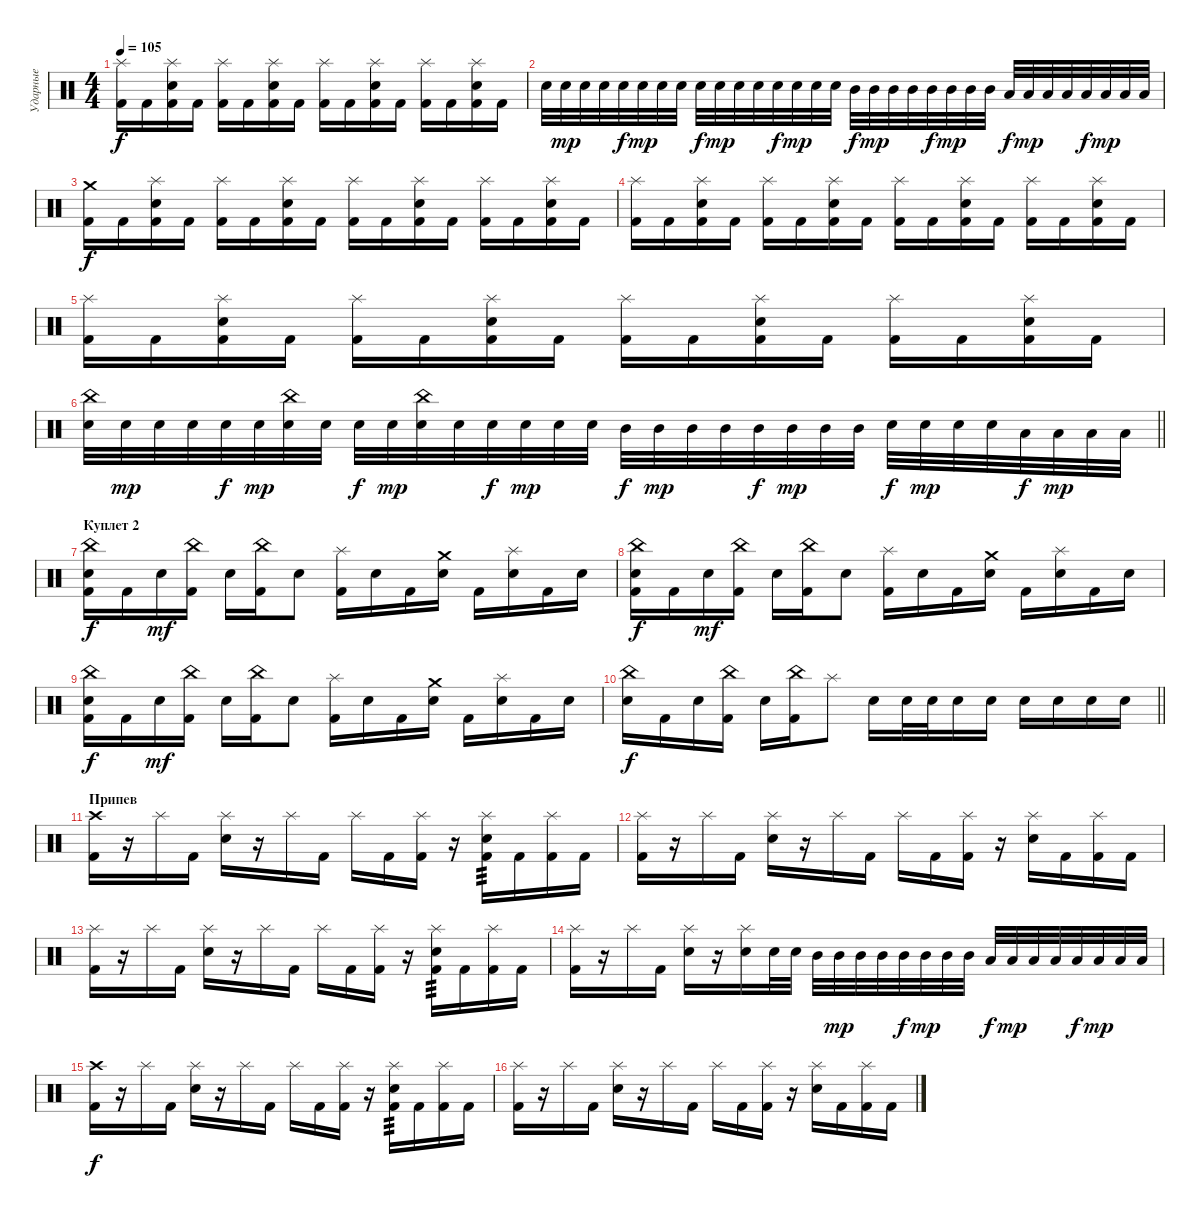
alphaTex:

\track ("Ударные" "Ударные") {instrument percussion}
\staff {score}
\articulation defaults
\ts (4 4)
\tempo 105
\clef neutral
\ks c
("Splash (hit)" "Kick (hit) 2").16{dy f} "Kick (hit) 2".16 ("Splash (hit)" "Electric Snare (hit)" "Kick (hit) 2").16 "Kick (hit) 2".16 ("Splash (hit)" "Kick (hit) 2").16 "Kick (hit) 2".16 ("Splash (hit)" "Electric Snare (hit)" "Kick (hit) 2").16 "Kick (hit) 2".16 ("Splash (hit)" "Kick (hit) 2").16 "Kick (hit) 2".16 ("Splash (hit)" "Electric Snare (hit)" "Kick (hit) 2").16 "Kick (hit) 2".16 ("Splash (hit)" "Kick (hit) 2").16 "Kick (hit) 2".16 ("Splash (hit)" "Electric Snare (hit)" "Kick (hit) 2").16 "Kick (hit) 2".16 |
"Electric Snare (hit)".32 "Electric Snare (hit)".32{dy mp} "Electric Snare (hit)".32 "Electric Snare (hit)".32 "Electric Snare (hit)".32{dy f} "Electric Snare (hit)".32{dy mp} "Electric Snare (hit)".32 "Electric Snare (hit)".32 "Electric Snare (hit)".32{dy f} "Electric Snare (hit)".32{dy mp} "Electric Snare (hit)".32 "Electric Snare (hit)".32 "Electric Snare (hit)".32{dy f} "Electric Snare (hit)".32{dy mp} "Electric Snare (hit)".32 "Electric Snare (hit)".32 "Mid Tom (hit)".32{dy f} "Mid Tom (hit)".32{dy mp} "Mid Tom (hit)".32 "Mid Tom (hit)".32 "Mid Tom (hit)".32{dy f} "Mid Tom (hit)".32{dy mp} "Mid Tom (hit)".32 "Mid Tom (hit)".32 "Low Tom (hit)".32{dy f} "Low Tom (hit)".32{dy mp} "Low Tom (hit)".32 "Low Tom (hit)".32 "Low Tom (hit)".32{dy f} "Low Tom (hit)".32{dy mp} "Low Tom (hit)".32 "Low Tom (hit)".32 |
("Crash medium (hit)" "Kick (hit) 2").16{dy f} "Kick (hit) 2".16 ("Splash (hit)" "Electric Snare (hit)" "Kick (hit) 2").16 "Kick (hit) 2".16 ("Splash (hit)" "Kick (hit) 2").16 "Kick (hit) 2".16 ("Splash (hit)" "Electric Snare (hit)" "Kick (hit) 2").16 "Kick (hit) 2".16 ("Splash (hit)" "Kick (hit) 2").16 "Kick (hit) 2".16 ("Splash (hit)" "Electric Snare (hit)" "Kick (hit) 2").16 "Kick (hit) 2".16 ("Splash (hit)" "Kick (hit) 2").16 "Kick (hit) 2".16 ("Splash (hit)" "Electric Snare (hit)" "Kick (hit) 2").16 "Kick (hit) 2".16 |
("Splash (hit)" "Kick (hit) 2").16 "Kick (hit) 2".16 ("Splash (hit)" "Electric Snare (hit)" "Kick (hit) 2").16 "Kick (hit) 2".16 ("Splash (hit)" "Kick (hit) 2").16 "Kick (hit) 2".16 ("Splash (hit)" "Electric Snare (hit)" "Kick (hit) 2").16 "Kick (hit) 2".16 ("Splash (hit)" "Kick (hit) 2").16 "Kick (hit) 2".16 ("Splash (hit)" "Electric Snare (hit)" "Kick (hit) 2").16 "Kick (hit) 2".16 ("Splash (hit)" "Kick (hit) 2").16 "Kick (hit) 2".16 ("Splash (hit)" "Electric Snare (hit)" "Kick (hit) 2").16 "Kick (hit) 2".16 |
("Splash (hit)" "Kick (hit) 2").16 "Kick (hit) 2".16 ("Splash (hit)" "Electric Snare (hit)" "Kick (hit) 2").16 "Kick (hit) 2".16 ("Splash (hit)" "Kick (hit) 2").16 "Kick (hit) 2".16 ("Splash (hit)" "Electric Snare (hit)" "Kick (hit) 2").16 "Kick (hit) 2".16 ("Splash (hit)" "Kick (hit) 2").16 "Kick (hit) 2".16 ("Splash (hit)" "Electric Snare (hit)" "Kick (hit) 2").16 "Kick (hit) 2".16 ("Splash (hit)" "Kick (hit) 2").16 "Kick (hit) 2".16 ("Splash (hit)" "Electric Snare (hit)" "Kick (hit) 2").16 "Kick (hit) 2".16 |
\barLineRight lightlight
("China (hit)" "Electric Snare (hit)").32 "Electric Snare (hit)".32{dy mp} "Electric Snare (hit)".32 "Electric Snare (hit)".32 "Electric Snare (hit)".32{dy f} "Electric Snare (hit)".32{dy mp} ("China (hit)" "Electric Snare (hit)").32 "Electric Snare (hit)".32 "Electric Snare (hit)".32{dy f} "Electric Snare (hit)".32{dy mp} ("China (hit)" "Electric Snare (hit)").32 "Electric Snare (hit)".32 "Electric Snare (hit)".32{dy f} "Electric Snare (hit)".32{dy mp} "Electric Snare (hit)".32 "Electric Snare (hit)".32 "Mid Tom (hit)".32{dy f} "Mid Tom (hit)".32{dy mp} "Mid Tom (hit)".32 "Mid Tom (hit)".32 "Mid Tom (hit)".32{dy f} "Mid Tom (hit)".32{dy mp} "Mid Tom (hit)".32 "Mid Tom (hit)".32 "Electric Snare (hit)".32{dy f} "Electric Snare (hit)".32{dy mp} "Electric Snare (hit)".32 "Electric Snare (hit)".32 "Low Tom (hit)".32{dy f} "Low Tom (hit)".32{dy mp} "Low Tom (hit)".32 "Low Tom (hit)".32 |
\section ("" "Куплет 2")
("China (hit)" "Electric Snare (hit)" "Kick (hit) 2").16{dy f} "Kick (hit) 2".16 "Electric Snare (hit)".16{dy mf} ("China (hit)" "Kick (hit) 2").16 "Electric Snare (hit)".16 ("China (hit)" "Kick (hit) 2").16 "Electric Snare (hit)".8 ("Splash (hit)" "Kick (hit) 2").16 "Electric Snare (hit)".16 "Kick (hit) 2".16 ("Crash medium (hit)" "Electric Snare (hit)").16 "Kick (hit) 2".16 ("Splash (hit)" "Electric Snare (hit)").16 "Kick (hit) 2".16 "Electric Snare (hit)".16 |
("China (hit)" "Electric Snare (hit)" "Kick (hit) 2").16{dy f} "Kick (hit) 2".16 "Electric Snare (hit)".16{dy mf} ("China (hit)" "Kick (hit) 2").16 "Electric Snare (hit)".16 ("China (hit)" "Kick (hit) 2").16 "Electric Snare (hit)".8 ("Splash (hit)" "Kick (hit) 2").16 "Electric Snare (hit)".16 "Kick (hit) 2".16 ("Crash medium (hit)" "Electric Snare (hit)").16 "Kick (hit) 2".16 ("Splash (hit)" "Electric Snare (hit)").16 "Kick (hit) 2".16 "Electric Snare (hit)".16 |
("China (hit)" "Electric Snare (hit)" "Kick (hit) 2").16{dy f} "Kick (hit) 2".16 "Electric Snare (hit)".16{dy mf} ("China (hit)" "Kick (hit) 2").16 "Electric Snare (hit)".16 ("China (hit)" "Kick (hit) 2").16 "Electric Snare (hit)".8 ("Splash (hit)" "Kick (hit) 2").16 "Electric Snare (hit)".16 "Kick (hit) 2".16 ("Crash medium (hit)" "Electric Snare (hit)").16 "Kick (hit) 2".16 ("Splash (hit)" "Electric Snare (hit)").16 "Kick (hit) 2".16 "Electric Snare (hit)".16 |
\barLineRight lightlight
("China (hit)" "Electric Snare (hit)").16{dy f} "Kick (hit) 2".16 "Electric Snare (hit)".16 ("China (hit)" "Kick (hit) 2").16 "Electric Snare (hit)".16 ("China (hit)" "Kick (hit) 2").16 "Splash (hit)".8 "Electric Snare (hit)".16 "Electric Snare (hit)".32 "Electric Snare (hit)".32 "Electric Snare (hit)".16 "Electric Snare (hit)".16 "Electric Snare (hit)".16 "Electric Snare (hit)".16 "Electric Snare (hit)".16 "Electric Snare (hit)".16 |
\section ("" "Припев")
("Crash high (hit)" "Kick (hit) 2").16 r.16 "Splash (hit)".16 "Kick (hit) 2".16 ("Splash (hit)" "Electric Snare (hit)").16 r.16 "Splash (hit)".16 "Kick (hit) 2".16 "Splash (hit)".16 "Kick (hit) 2".16 ("Splash (hit)" "Kick (hit) 2").16 r.16 ("Splash (hit)" "Electric Snare (hit)" "Kick (hit) 2").16{tp 3} "Kick (hit) 2".16 ("Splash (hit)" "Kick (hit) 2").16 "Kick (hit) 2".16 |
("Splash (hit)" "Kick (hit) 2").16 r.16 "Splash (hit)".16 "Kick (hit) 2".16 ("Splash (hit)" "Electric Snare (hit)").16 r.16 "Splash (hit)".16 "Kick (hit) 2".16 "Splash (hit)".16 "Kick (hit) 2".16 ("Splash (hit)" "Kick (hit) 2").16 r.16 ("Splash (hit)" "Electric Snare (hit)").16 "Kick (hit) 2".16 ("Splash (hit)" "Kick (hit) 2").16 "Kick (hit) 2".16 |
("Splash (hit)" "Kick (hit) 2").16 r.16 "Splash (hit)".16 "Kick (hit) 2".16 ("Splash (hit)" "Electric Snare (hit)").16 r.16 "Splash (hit)".16 "Kick (hit) 2".16 "Splash (hit)".16 "Kick (hit) 2".16 ("Splash (hit)" "Kick (hit) 2").16 r.16 ("Splash (hit)" "Electric Snare (hit)" "Kick (hit) 2").16{tp 3} "Kick (hit) 2".16 ("Splash (hit)" "Kick (hit) 2").16 "Kick (hit) 2".16 |
("Splash (hit)" "Kick (hit) 2").16 r.16 "Splash (hit)".16 "Kick (hit) 2".16 ("Splash (hit)" "Electric Snare (hit)").16 r.16 ("Splash (hit)" "Electric Snare (hit)").16 "Electric Snare (hit)".32 "Electric Snare (hit)".32 "Mid Tom (hit)".32 "Mid Tom (hit)".32{dy mp} "Mid Tom (hit)".32 "Mid Tom (hit)".32 "Mid Tom (hit)".32{dy f} "Mid Tom (hit)".32{dy mp} "Mid Tom (hit)".32 "Mid Tom (hit)".32 "Low Tom (hit)".32{dy f} "Low Tom (hit)".32{dy mp} "Low Tom (hit)".32 "Low Tom (hit)".32 "Low Tom (hit)".32{dy f} "Low Tom (hit)".32{dy mp} "Low Tom (hit)".32 "Low Tom (hit)".32 |
("Crash high (hit)" "Kick (hit) 2").16{dy f} r.16 "Splash (hit)".16 "Kick (hit) 2".16 ("Splash (hit)" "Electric Snare (hit)").16 r.16 "Splash (hit)".16 "Kick (hit) 2".16 "Splash (hit)".16 "Kick (hit) 2".16 ("Splash (hit)" "Kick (hit) 2").16 r.16 ("Splash (hit)" "Electric Snare (hit)" "Kick (hit) 2").16{tp 3} "Kick (hit) 2".16 ("Splash (hit)" "Kick (hit) 2").16 "Kick (hit) 2".16 |
("Splash (hit)" "Kick (hit) 2").16 r.16 "Splash (hit)".16 "Kick (hit) 2".16 ("Splash (hit)" "Electric Snare (hit)").16 r.16 "Splash (hit)".16 "Kick (hit) 2".16 "Splash (hit)".16 "Kick (hit) 2".16 ("Splash (hit)" "Kick (hit) 2").16 r.16 ("Splash (hit)" "Electric Snare (hit)").16 "Kick (hit) 2".16 ("Splash (hit)" "Kick (hit) 2").16 "Kick (hit) 2".16
